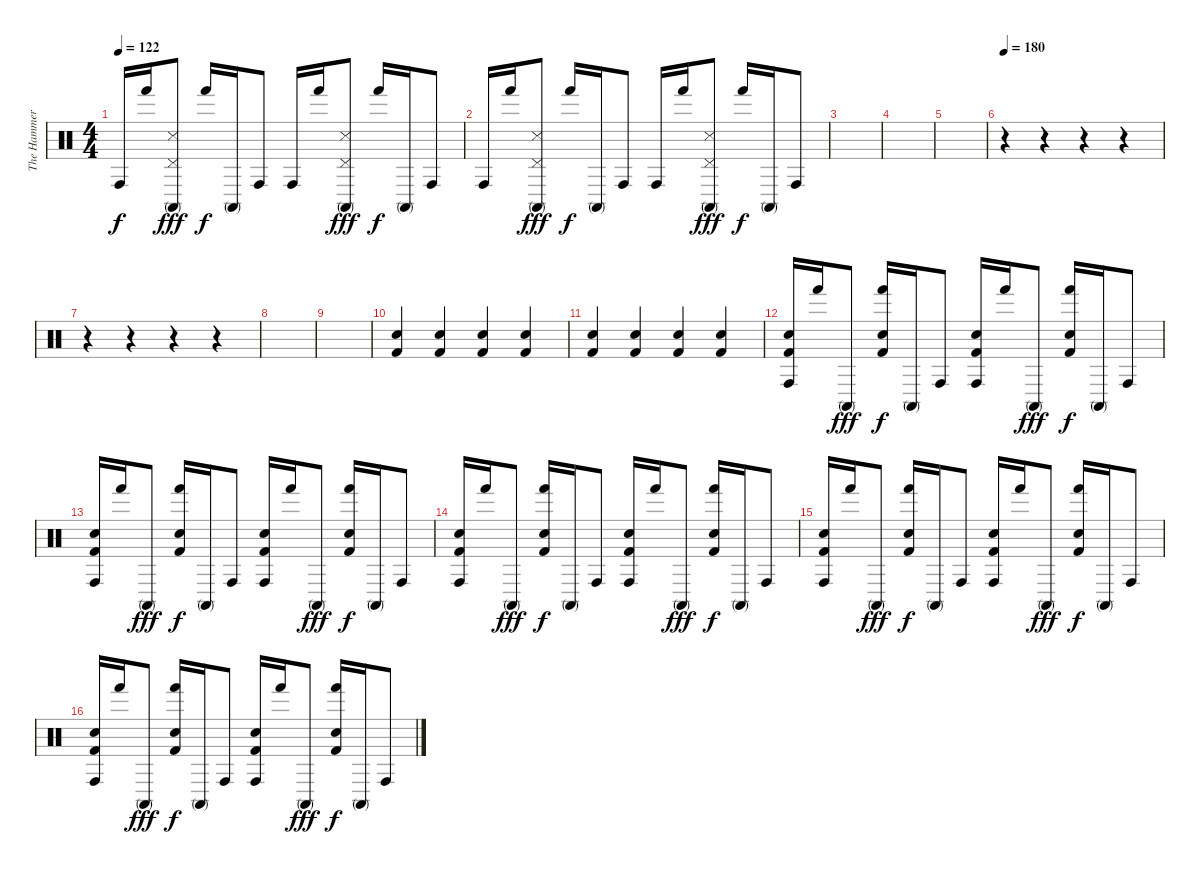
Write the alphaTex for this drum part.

\track ("The Hammer" "The Hammer") {instrument percussion}
\staff {score}
\articulation defaults
\ts (4 4)
\tempo 122
\clef neutral
\ks c "Conga high (hit)".16{dy f} "Hand (hit)".16
("Conga high (mute)" "Metronome (hit)" "Pedal Hi-Hat (hit)").8{dy fff} "Hand (hit)".16{dy f} "Conga high (mute)".16 "Conga high (hit)".8 "Conga high (hit)".16 "Hand (hit)".16 ("Conga high (mute)" "Metronome (hit)" "Pedal Hi-Hat (hit)").8{dy fff} "Hand (hit)".16{dy f} "Conga high (mute)".16 "Conga high (hit)".8 |
"Conga high (hit)".16 "Hand (hit)".16 ("Conga high (mute)" "Metronome (hit)" "Pedal Hi-Hat (hit)").8{dy fff} "Hand (hit)".16{dy f} "Conga high (mute)".16 "Conga high (hit)".8 "Conga high (hit)".16 "Hand (hit)".16 ("Conga high (mute)" "Metronome (hit)" "Pedal Hi-Hat (hit)").8{dy fff} "Hand (hit)".16{dy f} "Conga high (mute)".16 "Conga high (hit)".8 |
|
|
|
\tempo 180
r.4 r.4 r.4 r.4 |
r.4 r.4 r.4 r.4 |
|
|
("Kick (hit) 2" "Hand Clap (hit)").4 ("Kick (hit) 2" "Hand Clap (hit)").4 ("Kick (hit) 2" "Hand Clap (hit)").4 ("Kick (hit) 2" "Hand Clap (hit)").4 |
("Kick (hit) 2" "Hand Clap (hit)").4 ("Kick (hit) 2" "Hand Clap (hit)").4 ("Kick (hit) 2" "Hand Clap (hit)").4 ("Kick (hit) 2" "Hand Clap (hit)").4 |
("Conga high (hit)" "Hand Clap (hit)" "Kick (hit) 2").16 "Hand (hit)".16 "Conga high (mute)".8{dy fff} ("Hand (hit)" "Hand Clap (hit)" "Kick (hit) 2").16{dy f} "Conga high (mute)".16 "Conga high (hit)".8 ("Conga high (hit)" "Hand Clap (hit)" "Kick (hit) 2").16 "Hand (hit)".16 "Conga high (mute)".8{dy fff} ("Hand (hit)" "Hand Clap (hit)" "Kick (hit) 2").16{dy f} "Conga high (mute)".16 "Conga high (hit)".8 |
("Conga high (hit)" "Hand Clap (hit)" "Kick (hit) 2").16 "Hand (hit)".16 "Conga high (mute)".8{dy fff} ("Hand (hit)" "Hand Clap (hit)" "Kick (hit) 2").16{dy f} "Conga high (mute)".16 "Conga high (hit)".8 ("Conga high (hit)" "Hand Clap (hit)" "Kick (hit) 2").16 "Hand (hit)".16 "Conga high (mute)".8{dy fff} ("Hand (hit)" "Hand Clap (hit)" "Kick (hit) 2").16{dy f} "Conga high (mute)".16 "Conga high (hit)".8 |
("Conga high (hit)" "Hand Clap (hit)" "Kick (hit) 2").16 "Hand (hit)".16 "Conga high (mute)".8{dy fff} ("Hand (hit)" "Hand Clap (hit)" "Kick (hit) 2").16{dy f} "Conga high (mute)".16 "Conga high (hit)".8 ("Conga high (hit)" "Hand Clap (hit)" "Kick (hit) 2").16 "Hand (hit)".16 "Conga high (mute)".8{dy fff} ("Hand (hit)" "Hand Clap (hit)" "Kick (hit) 2").16{dy f} "Conga high (mute)".16 "Conga high (hit)".8 |
("Conga high (hit)" "Hand Clap (hit)" "Kick (hit) 2").16 "Hand (hit)".16 "Conga high (mute)".8{dy fff} ("Hand (hit)" "Hand Clap (hit)" "Kick (hit) 2").16{dy f} "Conga high (mute)".16 "Conga high (hit)".8 ("Conga high (hit)" "Hand Clap (hit)" "Kick (hit) 2").16 "Hand (hit)".16 "Conga high (mute)".8{dy fff} ("Hand (hit)" "Hand Clap (hit)" "Kick (hit) 2").16{dy f} "Conga high (mute)".16 "Conga high (hit)".8 |
("Conga high (hit)" "Hand Clap (hit)" "Kick (hit) 2").16 "Hand (hit)".16 "Conga high (mute)".8{dy fff} ("Hand (hit)" "Hand Clap (hit)" "Kick (hit) 2").16{dy f} "Conga high (mute)".16 "Conga high (hit)".8 ("Conga high (hit)" "Hand Clap (hit)" "Kick (hit) 2").16 "Hand (hit)".16 "Conga high (mute)".8{dy fff} ("Hand (hit)" "Hand Clap (hit)" "Kick (hit) 2").16{dy f} "Conga high (mute)".16 "Conga high (hit)".8
